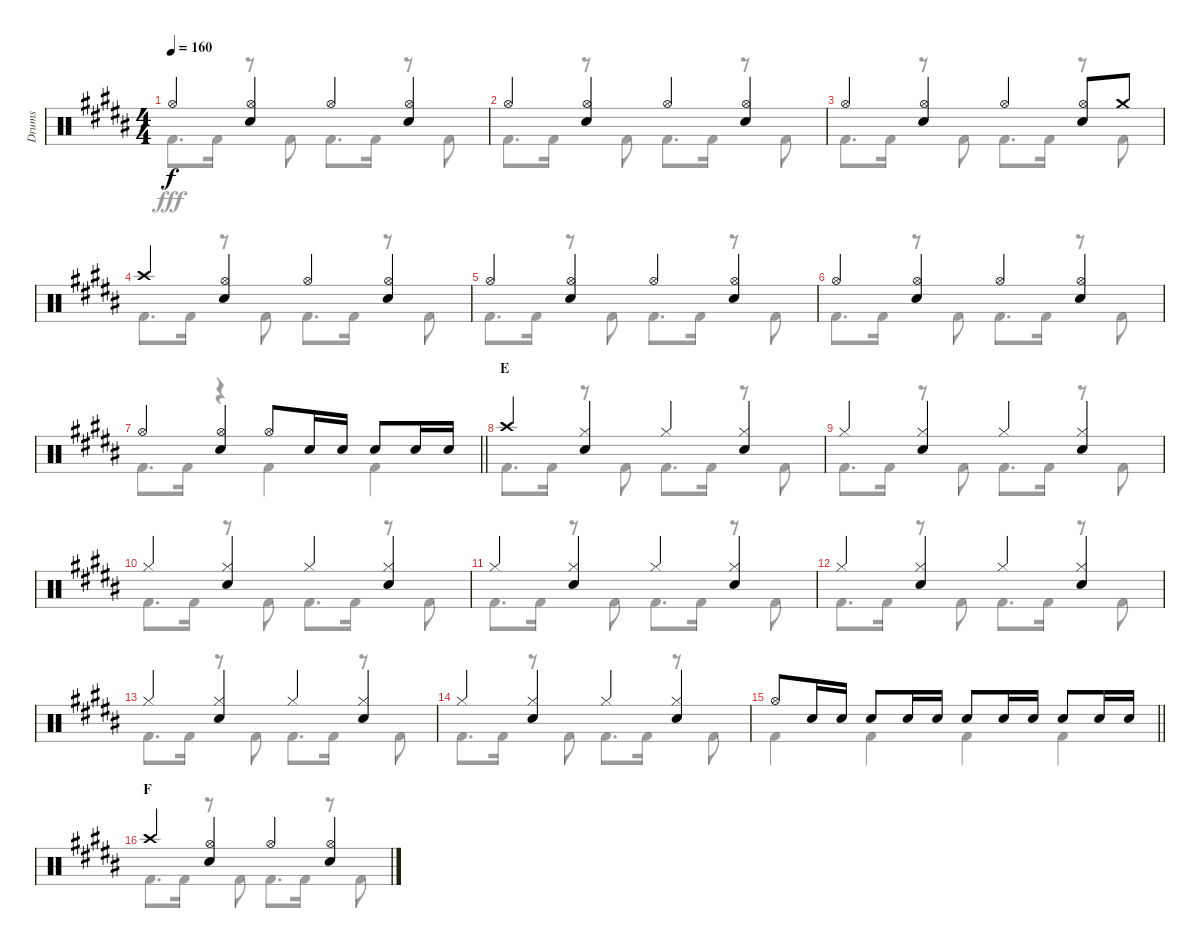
\track ("Drums" "Drums") {instrument percussion}
\staff {score}
\articulation defaults
\voice
\ts (4 4)
\tempo 160
\clef neutral
\ks b "Hi-Hat (open)".4{dy f}
("Hi-Hat (open)" "Snare (hit) 2").4 "Hi-Hat (open)".4 ("Hi-Hat (open)" "Snare (hit) 2").4 |
"Hi-Hat (open)".4 ("Hi-Hat (open)" "Snare (hit) 2").4 "Hi-Hat (open)".4 ("Hi-Hat (open)" "Snare (hit) 2").4 |
"Hi-Hat (open)".4 ("Hi-Hat (open)" "Snare (hit) 2").4 "Hi-Hat (open)".4 ("Hi-Hat (open)" "Snare (hit) 2").8 "Crash medium (hit)".8 |
"Crash high (hit)".4 ("Hi-Hat (open)" "Snare (hit) 2").4 "Hi-Hat (open)".4 ("Hi-Hat (open)" "Snare (hit) 2").4 |
"Hi-Hat (open)".4 ("Hi-Hat (open)" "Snare (hit) 2").4 "Hi-Hat (open)".4 ("Hi-Hat (open)" "Snare (hit) 2").4 |
"Hi-Hat (open)".4 ("Hi-Hat (open)" "Snare (hit) 2").4 "Hi-Hat (open)".4 ("Hi-Hat (open)" "Snare (hit) 2").4 |
\barLineRight lightlight "Hi-Hat (open)".4
("Hi-Hat (open)" "Snare (hit) 2").4 "Hi-Hat (open)".8 "Snare (hit) 2".16 "Snare (hit) 2".16 "Snare (hit) 2".8 "Snare (hit) 2".16 "Snare (hit) 2".16 |
\section ("" "E")
"Crash high (hit)".4 ("Hi-Hat (closed)" "Snare (hit) 2").4 "Hi-Hat (closed)".4 ("Hi-Hat (closed)" "Snare (hit) 2").4 |
"Hi-Hat (closed)".4 ("Hi-Hat (closed)" "Snare (hit) 2").4 "Hi-Hat (closed)".4 ("Hi-Hat (closed)" "Snare (hit) 2").4 |
"Hi-Hat (closed)".4 ("Hi-Hat (closed)" "Snare (hit) 2").4 "Hi-Hat (closed)".4 ("Hi-Hat (closed)" "Snare (hit) 2").4 |
"Hi-Hat (closed)".4 ("Hi-Hat (closed)" "Snare (hit) 2").4 "Hi-Hat (closed)".4 ("Hi-Hat (closed)" "Snare (hit) 2").4 |
"Hi-Hat (closed)".4 ("Hi-Hat (closed)" "Snare (hit) 2").4 "Hi-Hat (closed)".4 ("Hi-Hat (closed)" "Snare (hit) 2").4 |
"Hi-Hat (closed)".4 ("Hi-Hat (closed)" "Snare (hit) 2").4 "Hi-Hat (closed)".4 ("Hi-Hat (closed)" "Snare (hit) 2").4 |
"Hi-Hat (closed)".4 ("Hi-Hat (closed)" "Snare (hit) 2").4 "Hi-Hat (closed)".4 ("Hi-Hat (closed)" "Snare (hit) 2").4 |
\barLineRight lightlight "Hi-Hat (open)".8 "Snare (hit) 2".16 "Snare (hit) 2".16 "Snare (hit) 2".8 "Snare (hit) 2".16 "Snare (hit) 2".16 "Snare (hit) 2".8 "Snare (hit) 2".16 "Snare (hit) 2".16 "Snare (hit) 2".8 "Snare (hit) 2".16 "Snare (hit) 2".16
|
\section ("" "F")
"Crash high (hit)".4 ("Hi-Hat (open)" "Snare (hit) 2").4 "Hi-Hat (open)".4 ("Hi-Hat (open)" "Snare (hit) 2").4
\voice
\clef neutral
\ottava regular
\simile none
\ks b "Kick (hit) 2".8{d dy fff} "Kick (hit) 2".16
r.8 "Kick (hit) 2".8 "Kick (hit) 2".8{d} "Kick (hit) 2".16 r.8 "Kick (hit) 2".8 |
"Kick (hit) 2".8{d} "Kick (hit) 2".16 r.8 "Kick (hit) 2".8 "Kick (hit) 2".8{d} "Kick (hit) 2".16 r.8 "Kick (hit) 2".8 |
"Kick (hit) 2".8{d} "Kick (hit) 2".16 r.8 "Kick (hit) 2".8 "Kick (hit) 2".8{d} "Kick (hit) 2".16 r.8 "Kick (hit) 2".8 |
"Kick (hit) 2".8{d} "Kick (hit) 2".16 r.8 "Kick (hit) 2".8 "Kick (hit) 2".8{d} "Kick (hit) 2".16 r.8 "Kick (hit) 2".8 |
"Kick (hit) 2".8{d} "Kick (hit) 2".16 r.8 "Kick (hit) 2".8 "Kick (hit) 2".8{d} "Kick (hit) 2".16 r.8 "Kick (hit) 2".8 |
"Kick (hit) 2".8{d} "Kick (hit) 2".16 r.8 "Kick (hit) 2".8 "Kick (hit) 2".8{d} "Kick (hit) 2".16 r.8 "Kick (hit) 2".8 |
\barLineRight lightlight "Kick (hit) 2".8{d} "Kick (hit) 2".16
r.4 "Kick (hit) 2".4 "Kick (hit) 2".4 |
"Kick (hit) 2".8{d} "Kick (hit) 2".16 r.8 "Kick (hit) 2".8 "Kick (hit) 2".8{d} "Kick (hit) 2".16 r.8 "Kick (hit) 2".8 |
"Kick (hit) 2".8{d} "Kick (hit) 2".16 r.8 "Kick (hit) 2".8 "Kick (hit) 2".8{d} "Kick (hit) 2".16 r.8 "Kick (hit) 2".8 |
"Kick (hit) 2".8{d} "Kick (hit) 2".16 r.8 "Kick (hit) 2".8 "Kick (hit) 2".8{d} "Kick (hit) 2".16 r.8 "Kick (hit) 2".8 |
"Kick (hit) 2".8{d} "Kick (hit) 2".16 r.8 "Kick (hit) 2".8 "Kick (hit) 2".8{d} "Kick (hit) 2".16 r.8 "Kick (hit) 2".8 |
"Kick (hit) 2".8{d} "Kick (hit) 2".16 r.8 "Kick (hit) 2".8 "Kick (hit) 2".8{d} "Kick (hit) 2".16 r.8 "Kick (hit) 2".8 |
"Kick (hit) 2".8{d} "Kick (hit) 2".16 r.8 "Kick (hit) 2".8 "Kick (hit) 2".8{d} "Kick (hit) 2".16 r.8 "Kick (hit) 2".8 |
"Kick (hit) 2".8{d} "Kick (hit) 2".16 r.8 "Kick (hit) 2".8 "Kick (hit) 2".8{d} "Kick (hit) 2".16 r.8 "Kick (hit) 2".8 |
\barLineRight lightlight "Kick (hit) 2".4 "Kick (hit) 2".4 "Kick (hit) 2".4 "Kick (hit) 2".4
|
"Kick (hit) 2".8{d} "Kick (hit) 2".16 r.8 "Kick (hit) 2".8 "Kick (hit) 2".8{d} "Kick (hit) 2".16 r.8 "Kick (hit) 2".8
